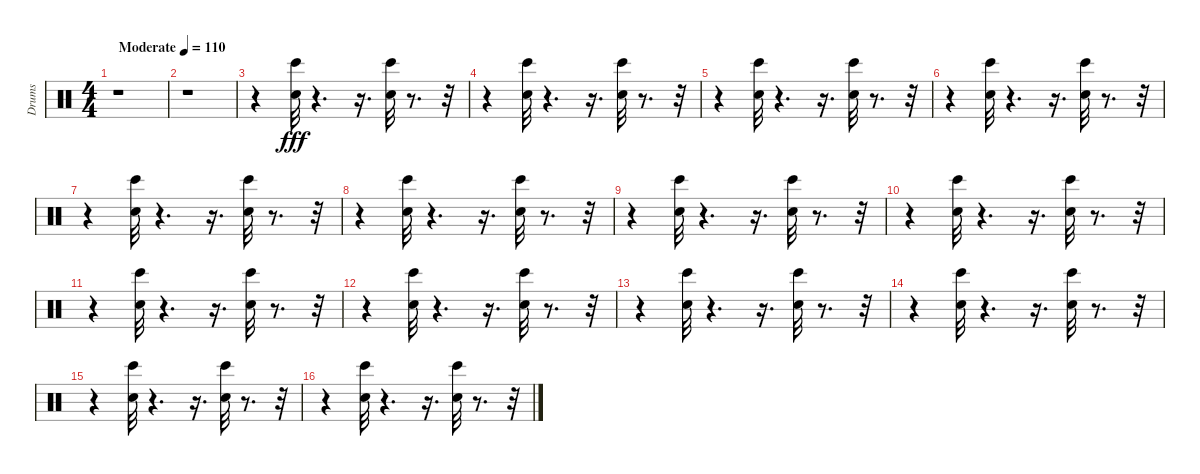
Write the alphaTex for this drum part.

\track ("Drums" "Drums") {instrument percussion}
\staff {score}
\articulation defaults
\ts (4 4)
\tempo (110 "Moderate")
\clef neutral
\ks c
r.1{dy fff} |
r.1 |
r.4 ("Snare (hit) 2" "Bongo High (hit)").32 r.4{d} r.16{d} ("Snare (hit) 2" "Bongo High (hit)").32 r.8{d} r.32 |
r.4 ("Snare (hit) 2" "Bongo High (hit)").32 r.4{d} r.16{d} ("Snare (hit) 2" "Bongo High (hit)").32 r.8{d} r.32 |
r.4 ("Snare (hit) 2" "Bongo High (hit)").32 r.4{d} r.16{d} ("Snare (hit) 2" "Bongo High (hit)").32 r.8{d} r.32 |
r.4 ("Snare (hit) 2" "Bongo High (hit)").32 r.4{d} r.16{d} ("Snare (hit) 2" "Bongo High (hit)").32 r.8{d} r.32 |
r.4 ("Snare (hit) 2" "Bongo High (hit)").32 r.4{d} r.16{d} ("Snare (hit) 2" "Bongo High (hit)").32 r.8{d} r.32 |
r.4 ("Snare (hit) 2" "Bongo High (hit)").32 r.4{d} r.16{d} ("Snare (hit) 2" "Bongo High (hit)").32 r.8{d} r.32 |
r.4 ("Snare (hit) 2" "Bongo High (hit)").32 r.4{d} r.16{d} ("Snare (hit) 2" "Bongo High (hit)").32 r.8{d} r.32 |
r.4 ("Snare (hit) 2" "Bongo High (hit)").32 r.4{d} r.16{d} ("Snare (hit) 2" "Bongo High (hit)").32 r.8{d} r.32 |
r.4 ("Snare (hit) 2" "Bongo High (hit)").32 r.4{d} r.16{d} ("Snare (hit) 2" "Bongo High (hit)").32 r.8{d} r.32 |
r.4 ("Snare (hit) 2" "Bongo High (hit)").32 r.4{d} r.16{d} ("Snare (hit) 2" "Bongo High (hit)").32 r.8{d} r.32 |
r.4 ("Snare (hit) 2" "Bongo High (hit)").32 r.4{d} r.16{d} ("Snare (hit) 2" "Bongo High (hit)").32 r.8{d} r.32 |
r.4 ("Snare (hit) 2" "Bongo High (hit)").32 r.4{d} r.16{d} ("Snare (hit) 2" "Bongo High (hit)").32 r.8{d} r.32 |
r.4 ("Snare (hit) 2" "Bongo High (hit)").32 r.4{d} r.16{d} ("Snare (hit) 2" "Bongo High (hit)").32 r.8{d} r.32 |
r.4 ("Snare (hit) 2" "Bongo High (hit)").32 r.4{d} r.16{d} ("Snare (hit) 2" "Bongo High (hit)").32 r.8{d} r.32
